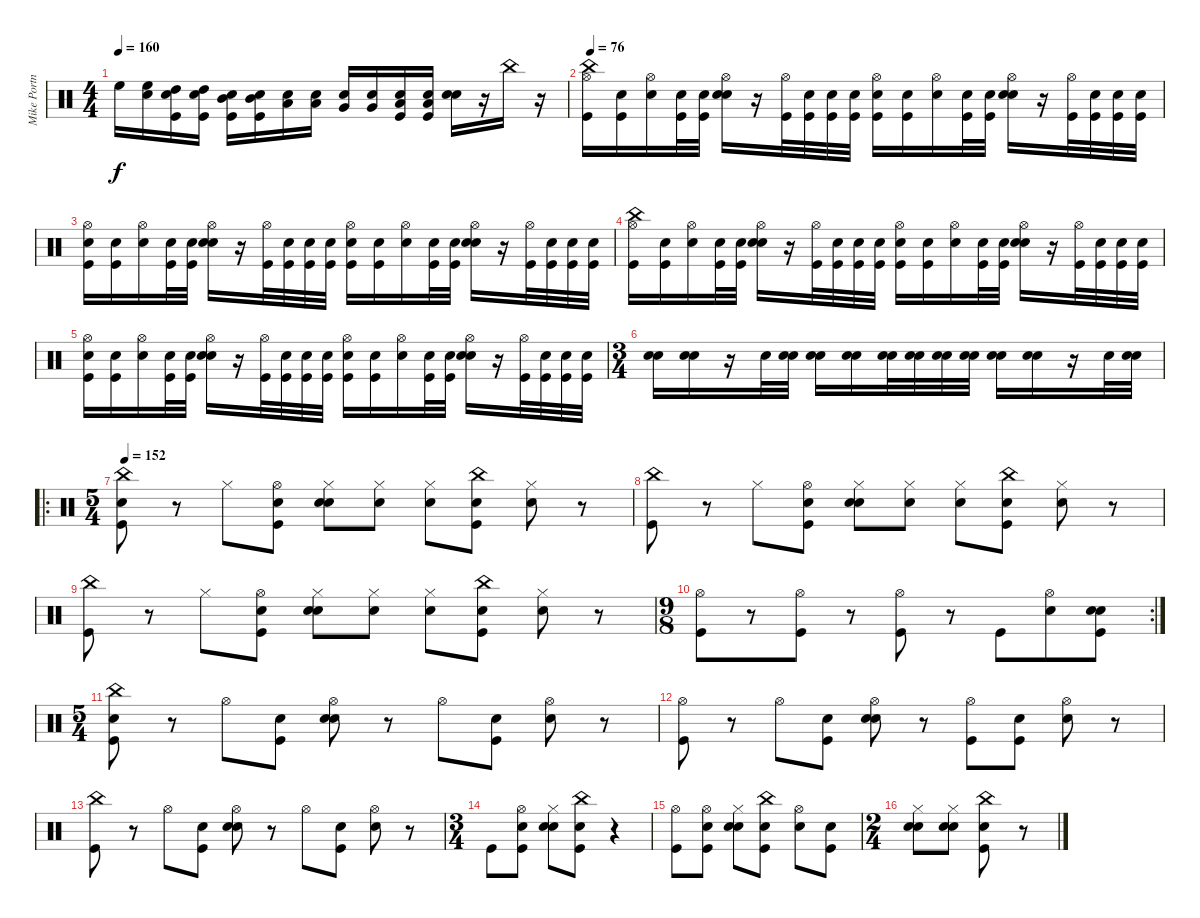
\track ("Mike Portnoy - Drum" "Mike Portn") {instrument percussion}
\staff {score}
\articulation defaults
\ts (4 4)
\tempo 160
\clef neutral
\ks c "High Floor Tom (hit)".16{dy f}
("Snare (hit)" "High Floor Tom (hit)").16 ("Snare (hit)" "Kick (hit)" "High Tom (hit)").16 ("Snare (hit)" "Kick (hit)" "High Tom (hit)").16 ("Snare (hit)" "Kick (hit)" "Mid Tom (hit)").16 ("Snare (hit)" "Kick (hit)" "Mid Tom (hit)").16 ("Snare (hit)" "Low Tom (hit)").16 ("Snare (hit)" "Low Tom (hit)").16 ("Snare (hit)" "Very Low Tom (hit)").16 ("Snare (hit)" "Very Low Tom (hit)").16 ("Snare (hit)" "Kick (hit)" "Low Floor Tom (hit)").16 ("Snare (hit)" "Kick (hit)" "Low Floor Tom (hit)").16 ("Snare (hit)" "Snare (hit) 2").16 r.16 "China (hit)".16 r.16 |
\tempo 76
("Kick (hit)" "Hi-Hat (open)" "China (hit)").16 ("Snare (hit)" "Kick (hit)").16 ("Snare (hit)" "Hi-Hat (open)").16 ("Snare (hit)" "Kick (hit)").32 ("Snare (hit)" "Kick (hit)").32 ("Snare (hit)" "Snare (hit) 2" "Hi-Hat (open)").16 r.16 ("Kick (hit)" "Hi-Hat (open)").32 ("Snare (hit)" "Kick (hit)").32 ("Snare (hit)" "Kick (hit)").32 ("Snare (hit)" "Kick (hit)").32 ("Snare (hit)" "Kick (hit)" "Hi-Hat (open)").16 ("Snare (hit)" "Kick (hit)").16 ("Snare (hit)" "Hi-Hat (open)").16 ("Snare (hit)" "Kick (hit)").32 ("Snare (hit)" "Kick (hit)").32 ("Snare (hit)" "Snare (hit) 2" "Hi-Hat (open)").16 r.16 ("Kick (hit)" "Hi-Hat (open)").32 ("Snare (hit)" "Kick (hit)").32 ("Snare (hit)" "Kick (hit)").32 ("Snare (hit)" "Kick (hit)").32 |
("Snare (hit)" "Kick (hit)" "Hi-Hat (open)").16 ("Snare (hit)" "Kick (hit)").16 ("Snare (hit)" "Hi-Hat (open)").16 ("Snare (hit)" "Kick (hit)").32 ("Snare (hit)" "Kick (hit)").32 ("Snare (hit)" "Snare (hit) 2" "Hi-Hat (open)").16 r.16 ("Kick (hit)" "Hi-Hat (open)").32 ("Snare (hit)" "Kick (hit)").32 ("Snare (hit)" "Kick (hit)").32 ("Snare (hit)" "Kick (hit)").32 ("Snare (hit)" "Kick (hit)" "Hi-Hat (open)").16 ("Snare (hit)" "Kick (hit)").16 ("Snare (hit)" "Hi-Hat (open)").16 ("Snare (hit)" "Kick (hit)").32 ("Snare (hit)" "Kick (hit)").32 ("Snare (hit)" "Snare (hit) 2" "Hi-Hat (open)").16 r.16 ("Kick (hit)" "Hi-Hat (open)").32 ("Snare (hit)" "Kick (hit)").32 ("Snare (hit)" "Kick (hit)").32 ("Snare (hit)" "Kick (hit)").32 |
("Kick (hit)" "Hi-Hat (open)" "China (hit)").16 ("Snare (hit)" "Kick (hit)").16 ("Snare (hit)" "Hi-Hat (open)").16 ("Snare (hit)" "Kick (hit)").32 ("Snare (hit)" "Kick (hit)").32 ("Snare (hit)" "Snare (hit) 2" "Hi-Hat (open)").16 r.16 ("Kick (hit)" "Hi-Hat (open)").32 ("Snare (hit)" "Kick (hit)").32 ("Snare (hit)" "Kick (hit)").32 ("Snare (hit)" "Kick (hit)").32 ("Snare (hit)" "Kick (hit)" "Hi-Hat (open)").16 ("Snare (hit)" "Kick (hit)").16 ("Snare (hit)" "Hi-Hat (open)").16 ("Snare (hit)" "Kick (hit)").32 ("Snare (hit)" "Kick (hit)").32 ("Snare (hit)" "Snare (hit) 2" "Hi-Hat (open)").16 r.16 ("Kick (hit)" "Hi-Hat (open)").32 ("Snare (hit)" "Kick (hit)").32 ("Snare (hit)" "Kick (hit)").32 ("Snare (hit)" "Kick (hit)").32 |
("Snare (hit)" "Kick (hit)" "Hi-Hat (open)").16 ("Snare (hit)" "Kick (hit)").16 ("Snare (hit)" "Hi-Hat (open)").16 ("Snare (hit)" "Kick (hit)").32 ("Snare (hit)" "Kick (hit)").32 ("Snare (hit)" "Snare (hit) 2" "Hi-Hat (open)").16 r.16 ("Kick (hit)" "Hi-Hat (open)").32 ("Snare (hit)" "Kick (hit)").32 ("Snare (hit)" "Kick (hit)").32 ("Snare (hit)" "Kick (hit)").32 ("Snare (hit)" "Kick (hit)" "Hi-Hat (open)").16 ("Snare (hit)" "Kick (hit)").16 ("Snare (hit)" "Hi-Hat (open)").16 ("Snare (hit)" "Kick (hit)").32 ("Snare (hit)" "Kick (hit)").32 ("Snare (hit)" "Snare (hit) 2" "Hi-Hat (open)").16 r.16 ("Kick (hit)" "Hi-Hat (open)").32 ("Snare (hit)" "Kick (hit)").32 ("Snare (hit)" "Kick (hit)").32 ("Snare (hit)" "Kick (hit)").32 |
\ts (3 4)
("Snare (hit)" "Snare (hit) 2").16 ("Snare (hit)" "Snare (hit) 2").16 r.16 "Snare (hit) 2".32 ("Snare (hit)" "Snare (hit) 2").32 ("Snare (hit)" "Snare (hit) 2").16 ("Snare (hit)" "Snare (hit) 2").16 ("Snare (hit)" "Snare (hit) 2").32 ("Snare (hit)" "Snare (hit) 2").32 ("Snare (hit)" "Snare (hit) 2").32 ("Snare (hit)" "Snare (hit) 2").32 ("Snare (hit)" "Snare (hit) 2").16 ("Snare (hit)" "Snare (hit) 2").16 r.16 "Snare (hit) 2".32 ("Snare (hit)" "Snare (hit) 2").32 |
\ro
\ts (5 4)
\tempo 152
("Snare (hit)" "Kick (hit)" "China (hit)").8 r.8 "Hi-Hat (closed)".8 ("Snare (hit)" "Kick (hit)" "Hi-Hat (open)").8 ("Snare (hit)" "Snare (hit) 2" "Hi-Hat (closed)").8 ("Snare (hit)" "Hi-Hat (closed)").8 ("Snare (hit)" "Hi-Hat (closed)").8 ("Snare (hit)" "Kick (hit)" "China (hit)").8 ("Snare (hit)" "Hi-Hat (closed)").8 r.8 |
("Kick (hit)" "China (hit)").8 r.8 "Hi-Hat (closed)".8 ("Snare (hit)" "Kick (hit)" "Hi-Hat (open)").8 ("Snare (hit)" "Snare (hit) 2" "Hi-Hat (closed)").8 ("Snare (hit)" "Hi-Hat (closed)").8 ("Snare (hit)" "Hi-Hat (closed)").8 ("Snare (hit)" "Kick (hit)" "China (hit)").8 ("Snare (hit)" "Hi-Hat (closed)").8 r.8 |
("Kick (hit)" "China (hit)").8 r.8 "Hi-Hat (closed)".8 ("Snare (hit)" "Kick (hit)" "Hi-Hat (open)").8 ("Snare (hit)" "Snare (hit) 2" "Hi-Hat (closed)").8 ("Snare (hit)" "Hi-Hat (closed)").8 ("Snare (hit)" "Hi-Hat (closed)").8 ("Snare (hit)" "Kick (hit)" "China (hit)").8 ("Snare (hit)" "Hi-Hat (closed)").8 r.8 |
\rc 2
\ts (9 8)
("Kick (hit)" "Hi-Hat (open)").8 r.8 ("Kick (hit)" "Hi-Hat (open)").8 r.8 ("Kick (hit)" "Hi-Hat (open)").8 r.8 "Kick (hit)".8 ("Snare (hit)" "Hi-Hat (open)").8 ("Snare (hit)" "Kick (hit)" "Snare (hit) 2").8 |
\ts (5 4)
("Snare (hit)" "Kick (hit)" "China (hit)").8 r.8 "Hi-Hat (open)".8 ("Snare (hit)" "Kick (hit)").8 ("Snare (hit)" "Snare (hit) 2" "Hi-Hat (open)").8 r.8 "Hi-Hat (open)".8 ("Snare (hit)" "Kick (hit)").8 ("Snare (hit)" "Hi-Hat (open)").8 r.8 |
("Kick (hit)" "Hi-Hat (open)").8 r.8 "Hi-Hat (open)".8 ("Snare (hit)" "Kick (hit)").8 ("Snare (hit)" "Snare (hit) 2" "Hi-Hat (open)").8 r.8 ("Kick (hit)" "Hi-Hat (open)").8 ("Snare (hit)" "Kick (hit)").8 ("Snare (hit)" "Hi-Hat (open)").8 r.8 |
("Kick (hit)" "China (hit)").8 r.8 "Hi-Hat (open)".8 ("Snare (hit)" "Kick (hit)").8 ("Snare (hit)" "Snare (hit) 2" "Hi-Hat (open)").8 r.8 "Hi-Hat (open)".8 ("Snare (hit)" "Kick (hit)").8 ("Snare (hit)" "Hi-Hat (open)").8 r.8 |
\ts (3 4)
"Kick (hit)".8 ("Snare (hit)" "Kick (hit)" "Hi-Hat (open)").8 ("Snare (hit)" "Snare (hit) 2" "Hi-Hat (closed)").8 ("Snare (hit)" "Kick (hit)" "China (hit)").8 r.4 |
("Kick (hit)" "Hi-Hat (open)").8 ("Snare (hit)" "Kick (hit)" "Hi-Hat (open)").8 ("Snare (hit)" "Snare (hit) 2" "Hi-Hat (closed)").8 ("Snare (hit)" "Kick (hit)" "China (hit)").8 ("Snare (hit)" "Hi-Hat (open)").8 ("Snare (hit)" "Kick (hit)").8 |
\ts (2 4)
("Snare (hit)" "Snare (hit) 2" "Hi-Hat (closed)").8 ("Snare (hit)" "Snare (hit) 2" "Hi-Hat (closed)").8 ("Snare (hit)" "Kick (hit)" "China (hit)").8 r.8
